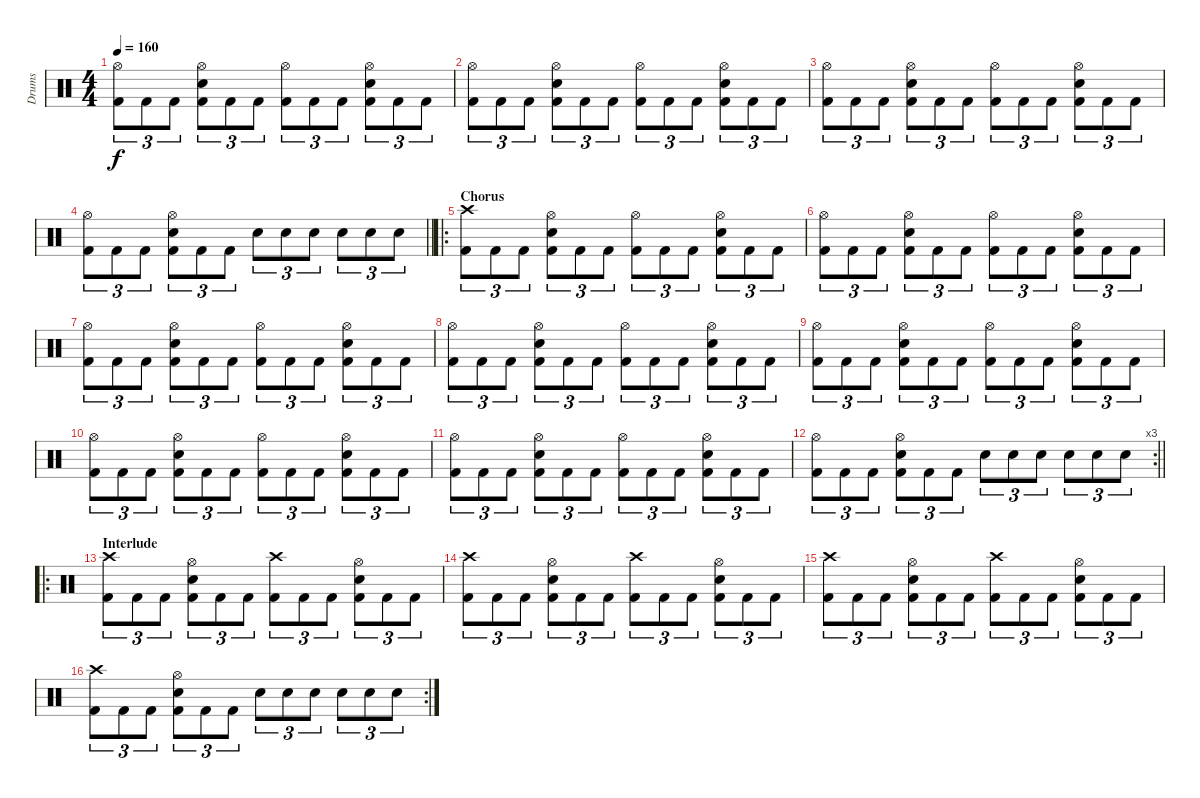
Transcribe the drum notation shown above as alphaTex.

\track ("Drums" "Drums") {instrument percussion}
\staff {score}
\articulation defaults
\ts (4 4)
\tempo 160
\clef neutral
\ks c
("Hi-Hat (open)" "Kick (hit) 2").8{tu (3 2) dy f} "Kick (hit) 2".8{tu (3 2)} "Kick (hit) 2".8{tu (3 2)} ("Hi-Hat (open)" "Snare (hit) 2" "Kick (hit) 2").8{tu (3 2)} "Kick (hit) 2".8{tu (3 2)} "Kick (hit) 2".8{tu (3 2)} ("Hi-Hat (open)" "Kick (hit) 2").8{tu (3 2)} "Kick (hit) 2".8{tu (3 2)} "Kick (hit) 2".8{tu (3 2)} ("Hi-Hat (open)" "Snare (hit) 2" "Kick (hit) 2").8{tu (3 2)} "Kick (hit) 2".8{tu (3 2)} "Kick (hit) 2".8{tu (3 2)} |
("Hi-Hat (open)" "Kick (hit) 2").8{tu (3 2)} "Kick (hit) 2".8{tu (3 2)} "Kick (hit) 2".8{tu (3 2)} ("Hi-Hat (open)" "Snare (hit) 2" "Kick (hit) 2").8{tu (3 2)} "Kick (hit) 2".8{tu (3 2)} "Kick (hit) 2".8{tu (3 2)} ("Hi-Hat (open)" "Kick (hit) 2").8{tu (3 2)} "Kick (hit) 2".8{tu (3 2)} "Kick (hit) 2".8{tu (3 2)} ("Hi-Hat (open)" "Snare (hit) 2" "Kick (hit) 2").8{tu (3 2)} "Kick (hit) 2".8{tu (3 2)} "Kick (hit) 2".8{tu (3 2)} |
("Hi-Hat (open)" "Kick (hit) 2").8{tu (3 2)} "Kick (hit) 2".8{tu (3 2)} "Kick (hit) 2".8{tu (3 2)} ("Hi-Hat (open)" "Snare (hit) 2" "Kick (hit) 2").8{tu (3 2)} "Kick (hit) 2".8{tu (3 2)} "Kick (hit) 2".8{tu (3 2)} ("Hi-Hat (open)" "Kick (hit) 2").8{tu (3 2)} "Kick (hit) 2".8{tu (3 2)} "Kick (hit) 2".8{tu (3 2)} ("Hi-Hat (open)" "Snare (hit) 2" "Kick (hit) 2").8{tu (3 2)} "Kick (hit) 2".8{tu (3 2)} "Kick (hit) 2".8{tu (3 2)} |
\barLineRight lightlight
("Hi-Hat (open)" "Kick (hit) 2").8{tu (3 2)} "Kick (hit) 2".8{tu (3 2)} "Kick (hit) 2".8{tu (3 2)} ("Hi-Hat (open)" "Snare (hit) 2" "Kick (hit) 2").8{tu (3 2)} "Kick (hit) 2".8{tu (3 2)} "Kick (hit) 2".8{tu (3 2)} "Snare (hit) 2".8{tu (3 2)} "Snare (hit) 2".8{tu (3 2)} "Snare (hit) 2".8{tu (3 2)} "Snare (hit) 2".8{tu (3 2)} "Snare (hit) 2".8{tu (3 2)} "Snare (hit) 2".8{tu (3 2)} |
\ro
\section ("" "Chorus")
("Crash high (hit)" "Kick (hit) 2").8{tu (3 2)} "Kick (hit) 2".8{tu (3 2)} "Kick (hit) 2".8{tu (3 2)} ("Hi-Hat (open)" "Snare (hit) 2" "Kick (hit) 2").8{tu (3 2)} "Kick (hit) 2".8{tu (3 2)} "Kick (hit) 2".8{tu (3 2)} ("Hi-Hat (open)" "Kick (hit) 2").8{tu (3 2)} "Kick (hit) 2".8{tu (3 2)} "Kick (hit) 2".8{tu (3 2)} ("Hi-Hat (open)" "Snare (hit) 2" "Kick (hit) 2").8{tu (3 2)} "Kick (hit) 2".8{tu (3 2)} "Kick (hit) 2".8{tu (3 2)} |
("Hi-Hat (open)" "Kick (hit) 2").8{tu (3 2)} "Kick (hit) 2".8{tu (3 2)} "Kick (hit) 2".8{tu (3 2)} ("Hi-Hat (open)" "Snare (hit) 2" "Kick (hit) 2").8{tu (3 2)} "Kick (hit) 2".8{tu (3 2)} "Kick (hit) 2".8{tu (3 2)} ("Hi-Hat (open)" "Kick (hit) 2").8{tu (3 2)} "Kick (hit) 2".8{tu (3 2)} "Kick (hit) 2".8{tu (3 2)} ("Hi-Hat (open)" "Snare (hit) 2" "Kick (hit) 2").8{tu (3 2)} "Kick (hit) 2".8{tu (3 2)} "Kick (hit) 2".8{tu (3 2)} |
("Hi-Hat (open)" "Kick (hit) 2").8{tu (3 2)} "Kick (hit) 2".8{tu (3 2)} "Kick (hit) 2".8{tu (3 2)} ("Hi-Hat (open)" "Snare (hit) 2" "Kick (hit) 2").8{tu (3 2)} "Kick (hit) 2".8{tu (3 2)} "Kick (hit) 2".8{tu (3 2)} ("Hi-Hat (open)" "Kick (hit) 2").8{tu (3 2)} "Kick (hit) 2".8{tu (3 2)} "Kick (hit) 2".8{tu (3 2)} ("Hi-Hat (open)" "Snare (hit) 2" "Kick (hit) 2").8{tu (3 2)} "Kick (hit) 2".8{tu (3 2)} "Kick (hit) 2".8{tu (3 2)} |
("Hi-Hat (open)" "Kick (hit) 2").8{tu (3 2)} "Kick (hit) 2".8{tu (3 2)} "Kick (hit) 2".8{tu (3 2)} ("Hi-Hat (open)" "Snare (hit) 2" "Kick (hit) 2").8{tu (3 2)} "Kick (hit) 2".8{tu (3 2)} "Kick (hit) 2".8{tu (3 2)} ("Hi-Hat (open)" "Kick (hit) 2").8{tu (3 2)} "Kick (hit) 2".8{tu (3 2)} "Kick (hit) 2".8{tu (3 2)} ("Hi-Hat (open)" "Snare (hit) 2" "Kick (hit) 2").8{tu (3 2)} "Kick (hit) 2".8{tu (3 2)} "Kick (hit) 2".8{tu (3 2)} |
("Hi-Hat (open)" "Kick (hit) 2").8{tu (3 2)} "Kick (hit) 2".8{tu (3 2)} "Kick (hit) 2".8{tu (3 2)} ("Hi-Hat (open)" "Snare (hit) 2" "Kick (hit) 2").8{tu (3 2)} "Kick (hit) 2".8{tu (3 2)} "Kick (hit) 2".8{tu (3 2)} ("Hi-Hat (open)" "Kick (hit) 2").8{tu (3 2)} "Kick (hit) 2".8{tu (3 2)} "Kick (hit) 2".8{tu (3 2)} ("Hi-Hat (open)" "Snare (hit) 2" "Kick (hit) 2").8{tu (3 2)} "Kick (hit) 2".8{tu (3 2)} "Kick (hit) 2".8{tu (3 2)} |
("Hi-Hat (open)" "Kick (hit) 2").8{tu (3 2)} "Kick (hit) 2".8{tu (3 2)} "Kick (hit) 2".8{tu (3 2)} ("Hi-Hat (open)" "Snare (hit) 2" "Kick (hit) 2").8{tu (3 2)} "Kick (hit) 2".8{tu (3 2)} "Kick (hit) 2".8{tu (3 2)} ("Hi-Hat (open)" "Kick (hit) 2").8{tu (3 2)} "Kick (hit) 2".8{tu (3 2)} "Kick (hit) 2".8{tu (3 2)} ("Hi-Hat (open)" "Snare (hit) 2" "Kick (hit) 2").8{tu (3 2)} "Kick (hit) 2".8{tu (3 2)} "Kick (hit) 2".8{tu (3 2)} |
("Hi-Hat (open)" "Kick (hit) 2").8{tu (3 2)} "Kick (hit) 2".8{tu (3 2)} "Kick (hit) 2".8{tu (3 2)} ("Hi-Hat (open)" "Snare (hit) 2" "Kick (hit) 2").8{tu (3 2)} "Kick (hit) 2".8{tu (3 2)} "Kick (hit) 2".8{tu (3 2)} ("Hi-Hat (open)" "Kick (hit) 2").8{tu (3 2)} "Kick (hit) 2".8{tu (3 2)} "Kick (hit) 2".8{tu (3 2)} ("Hi-Hat (open)" "Snare (hit) 2" "Kick (hit) 2").8{tu (3 2)} "Kick (hit) 2".8{tu (3 2)} "Kick (hit) 2".8{tu (3 2)} |
\rc 3
\barLineRight lightlight
("Hi-Hat (open)" "Kick (hit) 2").8{tu (3 2)} "Kick (hit) 2".8{tu (3 2)} "Kick (hit) 2".8{tu (3 2)} ("Hi-Hat (open)" "Snare (hit) 2" "Kick (hit) 2").8{tu (3 2)} "Kick (hit) 2".8{tu (3 2)} "Kick (hit) 2".8{tu (3 2)} "Snare (hit) 2".8{tu (3 2)} "Snare (hit) 2".8{tu (3 2)} "Snare (hit) 2".8{tu (3 2)} "Snare (hit) 2".8{tu (3 2)} "Snare (hit) 2".8{tu (3 2)} "Snare (hit) 2".8{tu (3 2)} |
\ro
\section ("" "Interlude")
("Crash high (hit)" "Kick (hit) 2").8{tu (3 2)} "Kick (hit) 2".8{tu (3 2)} "Kick (hit) 2".8{tu (3 2)} ("Hi-Hat (open)" "Snare (hit) 2" "Kick (hit) 2").8{tu (3 2)} "Kick (hit) 2".8{tu (3 2)} "Kick (hit) 2".8{tu (3 2)} ("Crash high (hit)" "Kick (hit) 2").8{tu (3 2)} "Kick (hit) 2".8{tu (3 2)} "Kick (hit) 2".8{tu (3 2)} ("Hi-Hat (open)" "Snare (hit) 2" "Kick (hit) 2").8{tu (3 2)} "Kick (hit) 2".8{tu (3 2)} "Kick (hit) 2".8{tu (3 2)} |
("Crash high (hit)" "Kick (hit) 2").8{tu (3 2)} "Kick (hit) 2".8{tu (3 2)} "Kick (hit) 2".8{tu (3 2)} ("Hi-Hat (open)" "Snare (hit) 2" "Kick (hit) 2").8{tu (3 2)} "Kick (hit) 2".8{tu (3 2)} "Kick (hit) 2".8{tu (3 2)} ("Crash high (hit)" "Kick (hit) 2").8{tu (3 2)} "Kick (hit) 2".8{tu (3 2)} "Kick (hit) 2".8{tu (3 2)} ("Hi-Hat (open)" "Snare (hit) 2" "Kick (hit) 2").8{tu (3 2)} "Kick (hit) 2".8{tu (3 2)} "Kick (hit) 2".8{tu (3 2)} |
("Crash high (hit)" "Kick (hit) 2").8{tu (3 2)} "Kick (hit) 2".8{tu (3 2)} "Kick (hit) 2".8{tu (3 2)} ("Hi-Hat (open)" "Snare (hit) 2" "Kick (hit) 2").8{tu (3 2)} "Kick (hit) 2".8{tu (3 2)} "Kick (hit) 2".8{tu (3 2)} ("Crash high (hit)" "Kick (hit) 2").8{tu (3 2)} "Kick (hit) 2".8{tu (3 2)} "Kick (hit) 2".8{tu (3 2)} ("Hi-Hat (open)" "Snare (hit) 2" "Kick (hit) 2").8{tu (3 2)} "Kick (hit) 2".8{tu (3 2)} "Kick (hit) 2".8{tu (3 2)} |
\rc 2
("Crash high (hit)" "Kick (hit) 2").8{tu (3 2)} "Kick (hit) 2".8{tu (3 2)} "Kick (hit) 2".8{tu (3 2)} ("Hi-Hat (open)" "Snare (hit) 2" "Kick (hit) 2").8{tu (3 2)} "Kick (hit) 2".8{tu (3 2)} "Kick (hit) 2".8{tu (3 2)} "Snare (hit) 2".8{tu (3 2)} "Snare (hit) 2".8{tu (3 2)} "Snare (hit) 2".8{tu (3 2)} "Snare (hit) 2".8{tu (3 2)} "Snare (hit) 2".8{tu (3 2)} "Snare (hit) 2".8{tu (3 2)}
